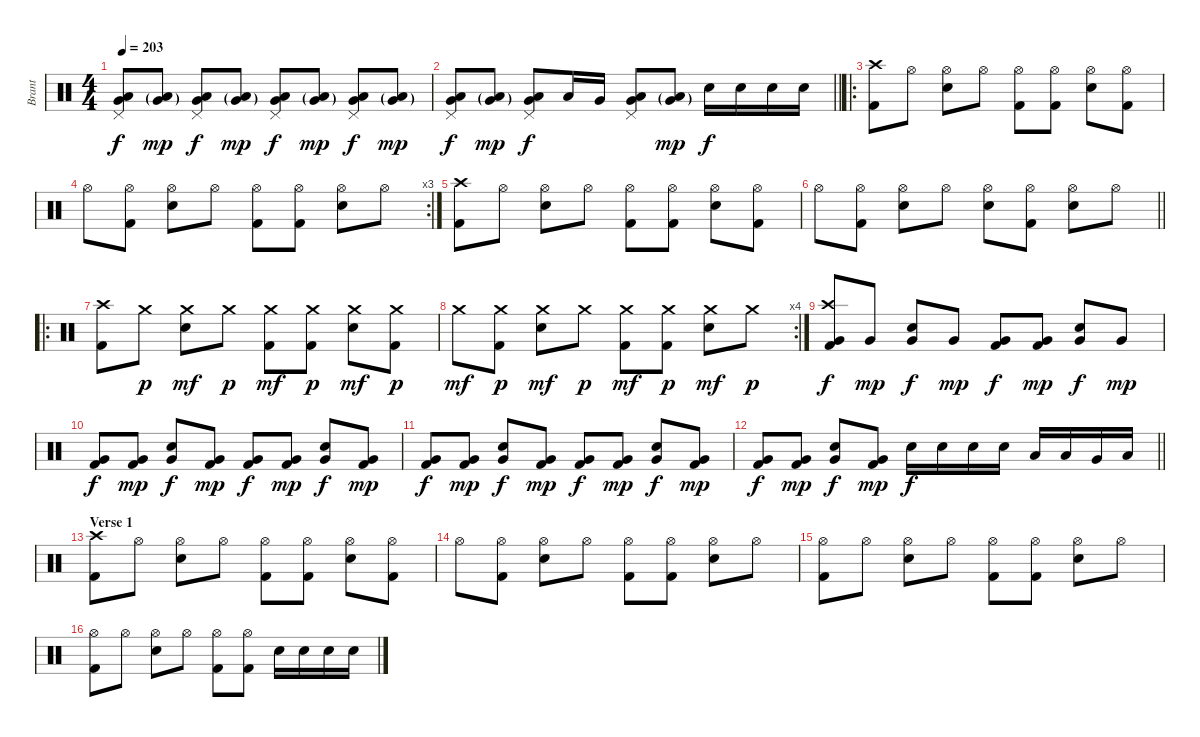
\track ("Brant" "Brant") {instrument percussion}
\staff {score}
\articulation defaults
\ts (4 4)
\tempo 203
\clef neutral
\ks c
("Pedal Hi-Hat (hit)" "Very Low Tom (hit)" "Low Floor Tom (hit)").8{dy f} ("Very Low Tom (hit)"{g} "Low Floor Tom (hit)"{g}).8{dy mp} ("Pedal Hi-Hat (hit)" "Very Low Tom (hit)" "Low Floor Tom (hit)").8{dy f} ("Very Low Tom (hit)"{g} "Low Floor Tom (hit)"{g}).8{dy mp} ("Pedal Hi-Hat (hit)" "Very Low Tom (hit)" "Low Floor Tom (hit)").8{dy f} ("Very Low Tom (hit)"{g} "Low Floor Tom (hit)"{g}).8{dy mp} ("Pedal Hi-Hat (hit)" "Very Low Tom (hit)" "Low Floor Tom (hit)").8{dy f} ("Very Low Tom (hit)"{g} "Low Floor Tom (hit)"{g}).8{dy mp} |
\barLineRight lightlight
("Pedal Hi-Hat (hit)" "Very Low Tom (hit)" "Low Floor Tom (hit)").8{dy f} ("Very Low Tom (hit)"{g} "Low Floor Tom (hit)"{g}).8{dy mp} ("Pedal Hi-Hat (hit)" "Very Low Tom (hit)" "Low Floor Tom (hit)").8{dy f} "Low Tom (hit)".16 "Very Low Tom (hit)".16 ("Pedal Hi-Hat (hit)" "Very Low Tom (hit)" "Low Floor Tom (hit)").8 ("Very Low Tom (hit)"{g} "Low Floor Tom (hit)"{g}).8{dy mp} "Electric Snare (hit)".16{dy f} "Electric Snare (hit)".16 "Electric Snare (hit)".16 "Electric Snare (hit)".16 |
\ro
\section ("" "")
("Crash high (hit)" "Kick (hit) 2").8 "Hi-Hat (open)".8 ("Hi-Hat (open)" "Electric Snare (hit)").8 "Hi-Hat (open)".8 ("Hi-Hat (open)" "Kick (hit) 2").8 ("Hi-Hat (open)" "Kick (hit) 2").8 ("Hi-Hat (open)" "Electric Snare (hit)").8 ("Hi-Hat (open)" "Kick (hit) 2").8 |
\rc 3 "Hi-Hat (open)".8
("Hi-Hat (open)" "Kick (hit) 2").8 ("Hi-Hat (open)" "Electric Snare (hit)").8 "Hi-Hat (open)".8 ("Hi-Hat (open)" "Kick (hit) 2").8 ("Hi-Hat (open)" "Kick (hit) 2").8 ("Hi-Hat (open)" "Electric Snare (hit)").8 "Hi-Hat (open)".8 |
("Crash high (hit)" "Kick (hit) 2").8 "Hi-Hat (open)".8 ("Hi-Hat (open)" "Electric Snare (hit)").8 "Hi-Hat (open)".8 ("Hi-Hat (open)" "Kick (hit) 2").8 ("Hi-Hat (open)" "Kick (hit) 2").8 ("Hi-Hat (open)" "Electric Snare (hit)").8 ("Hi-Hat (open)" "Kick (hit) 2").8 |
\barLineRight lightlight "Hi-Hat (open)".8
("Hi-Hat (open)" "Kick (hit) 2").8 ("Hi-Hat (open)" "Electric Snare (hit)").8 "Hi-Hat (open)".8 ("Hi-Hat (open)" "Electric Snare (hit)").8 ("Hi-Hat (open)" "Kick (hit) 2").8 ("Hi-Hat (open)" "Electric Snare (hit)").8 "Hi-Hat (open)".8 |
\ro
\section ("" "")
("Crash high (hit)" "Kick (hit) 2").8 "Crash medium (hit)".8{dy p} ("Crash medium (hit)" "Electric Snare (hit)").8{dy mf} "Crash medium (hit)".8{dy p} ("Crash medium (hit)" "Kick (hit) 2").8{dy mf} ("Crash medium (hit)" "Kick (hit) 2").8{dy p} ("Crash medium (hit)" "Electric Snare (hit)").8{dy mf} ("Crash medium (hit)" "Kick (hit) 2").8{dy p} |
\rc 4 "Crash medium (hit)".8{dy mf}
("Crash medium (hit)" "Kick (hit) 2").8{dy p} ("Crash medium (hit)" "Electric Snare (hit)").8{dy mf} "Crash medium (hit)".8{dy p} ("Crash medium (hit)" "Kick (hit) 2").8{dy mf} ("Crash medium (hit)" "Kick (hit) 2").8{dy p} ("Crash medium (hit)" "Electric Snare (hit)").8{dy mf} "Crash medium (hit)".8{dy p} |
("Crash high (hit)" "Very Low Tom (hit)" "Kick (hit) 2").8{dy f} "Very Low Tom (hit)".8{dy mp} ("Electric Snare (hit)" "Very Low Tom (hit)").8{dy f} "Very Low Tom (hit)".8{dy mp} ("Very Low Tom (hit)" "Kick (hit) 2").8{dy f} ("Very Low Tom (hit)" "Kick (hit) 2").8{dy mp} ("Electric Snare (hit)" "Very Low Tom (hit)").8{dy f} "Very Low Tom (hit)".8{dy mp} |
("Very Low Tom (hit)" "Kick (hit) 2").8{dy f} ("Very Low Tom (hit)" "Kick (hit) 2").8{dy mp} ("Electric Snare (hit)" "Very Low Tom (hit)").8{dy f} ("Very Low Tom (hit)" "Kick (hit) 2").8{dy mp} ("Very Low Tom (hit)" "Kick (hit) 2").8{dy f} ("Very Low Tom (hit)" "Kick (hit) 2").8{dy mp} ("Electric Snare (hit)" "Very Low Tom (hit)").8{dy f} ("Very Low Tom (hit)" "Kick (hit) 2").8{dy mp} |
("Very Low Tom (hit)" "Kick (hit) 2").8{dy f} ("Very Low Tom (hit)" "Kick (hit) 2").8{dy mp} ("Electric Snare (hit)" "Very Low Tom (hit)").8{dy f} ("Very Low Tom (hit)" "Kick (hit) 2").8{dy mp} ("Very Low Tom (hit)" "Kick (hit) 2").8{dy f} ("Very Low Tom (hit)" "Kick (hit) 2").8{dy mp} ("Electric Snare (hit)" "Very Low Tom (hit)").8{dy f} ("Very Low Tom (hit)" "Kick (hit) 2").8{dy mp} |
\barLineRight lightlight
("Very Low Tom (hit)" "Kick (hit) 2").8{dy f} ("Very Low Tom (hit)" "Kick (hit) 2").8{dy mp} ("Electric Snare (hit)" "Very Low Tom (hit)").8{dy f} ("Very Low Tom (hit)" "Kick (hit) 2").8{dy mp} "Electric Snare (hit)".16{dy f} "Electric Snare (hit)".16 "Electric Snare (hit)".16 "Electric Snare (hit)".16 "Low Tom (hit)".16 "Low Tom (hit)".16 "Very Low Tom (hit)".16 "Low Floor Tom (hit)".16 |
\section ("" "Verse 1")
("Crash high (hit)" "Kick (hit) 2").8 "Hi-Hat (open)".8 ("Hi-Hat (open)" "Electric Snare (hit)").8 "Hi-Hat (open)".8 ("Hi-Hat (open)" "Kick (hit) 2").8 ("Hi-Hat (open)" "Kick (hit) 2").8 ("Hi-Hat (open)" "Electric Snare (hit)").8 ("Hi-Hat (open)" "Kick (hit) 2").8 |
"Hi-Hat (open)".8 ("Hi-Hat (open)" "Kick (hit) 2").8 ("Hi-Hat (open)" "Electric Snare (hit)").8 "Hi-Hat (open)".8 ("Hi-Hat (open)" "Kick (hit) 2").8 ("Hi-Hat (open)" "Kick (hit) 2").8 ("Hi-Hat (open)" "Electric Snare (hit)").8 "Hi-Hat (open)".8 |
("Hi-Hat (open)" "Kick (hit) 2").8 "Hi-Hat (open)".8 ("Hi-Hat (open)" "Electric Snare (hit)").8 "Hi-Hat (open)".8 ("Hi-Hat (open)" "Kick (hit) 2").8 ("Hi-Hat (open)" "Kick (hit) 2").8 ("Hi-Hat (open)" "Electric Snare (hit)").8 "Hi-Hat (open)".8 |
("Hi-Hat (open)" "Kick (hit) 2").8 "Hi-Hat (open)".8 ("Hi-Hat (open)" "Electric Snare (hit)").8 "Hi-Hat (open)".8 ("Hi-Hat (open)" "Kick (hit) 2").8 ("Hi-Hat (open)" "Kick (hit) 2").8 "Electric Snare (hit)".16 "Electric Snare (hit)".16 "Electric Snare (hit)".16 "Electric Snare (hit)".16
